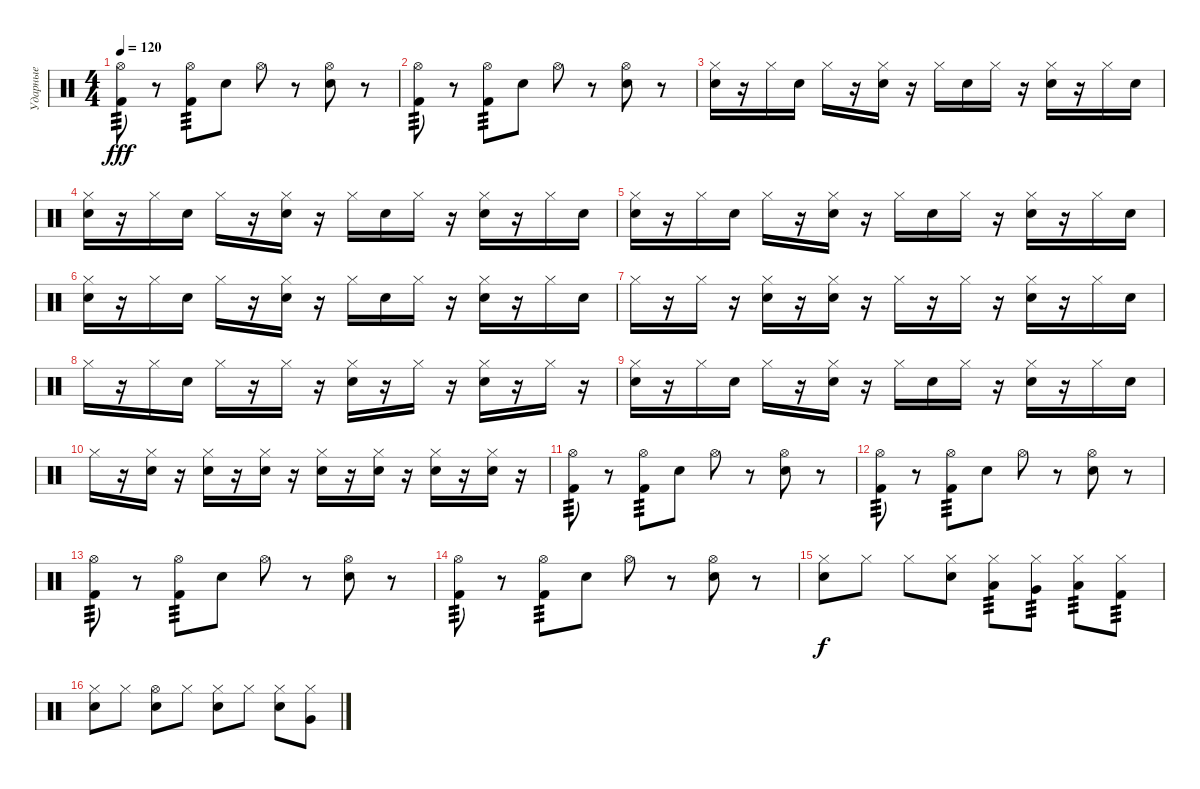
\track ("Ударные" "Ударные") {instrument percussion}
\staff {score}
\articulation defaults
\ts (4 4)
\tempo 120
\clef neutral
\ks c
("Hi-Hat (open)" "Kick (hit) 2").8{tp 3 dy fff} r.8 ("Hi-Hat (open)" "Kick (hit) 2").8{tp 3} "Snare (hit) 2".8 "Hi-Hat (open)".8 r.8 ("Hi-Hat (open)" "Snare (hit) 2").8 r.8 |
("Hi-Hat (open)" "Kick (hit) 2").8{tp 3} r.8 ("Hi-Hat (open)" "Kick (hit) 2").8{tp 3} "Snare (hit) 2".8 "Hi-Hat (open)".8 r.8 ("Hi-Hat (open)" "Snare (hit) 2").8 r.8 |
("Hi-Hat (closed)" "Snare (hit) 2").16 r.16 "Hi-Hat (closed)".16 "Snare (hit) 2".16 "Hi-Hat (closed)".16 r.16 ("Hi-Hat (closed)" "Snare (hit) 2").16 r.16 "Hi-Hat (closed)".16 "Snare (hit) 2".16 "Hi-Hat (closed)".16 r.16 ("Hi-Hat (closed)" "Snare (hit) 2").16 r.16 "Hi-Hat (closed)".16 "Snare (hit) 2".16 |
("Hi-Hat (closed)" "Snare (hit) 2").16 r.16 "Hi-Hat (closed)".16 "Snare (hit) 2".16 "Hi-Hat (closed)".16 r.16 ("Hi-Hat (closed)" "Snare (hit) 2").16 r.16 "Hi-Hat (closed)".16 "Snare (hit) 2".16 "Hi-Hat (closed)".16 r.16 ("Hi-Hat (closed)" "Snare (hit) 2").16 r.16 "Hi-Hat (closed)".16 "Snare (hit) 2".16 |
("Hi-Hat (closed)" "Snare (hit) 2").16 r.16 "Hi-Hat (closed)".16 "Snare (hit) 2".16 "Hi-Hat (closed)".16 r.16 ("Hi-Hat (closed)" "Snare (hit) 2").16 r.16 "Hi-Hat (closed)".16 "Snare (hit) 2".16 "Hi-Hat (closed)".16 r.16 ("Hi-Hat (closed)" "Snare (hit) 2").16 r.16 "Hi-Hat (closed)".16 "Snare (hit) 2".16 |
("Hi-Hat (closed)" "Snare (hit) 2").16 r.16 "Hi-Hat (closed)".16 "Snare (hit) 2".16 "Hi-Hat (closed)".16 r.16 ("Hi-Hat (closed)" "Snare (hit) 2").16 r.16 "Hi-Hat (closed)".16 "Snare (hit) 2".16 "Hi-Hat (closed)".16 r.16 ("Hi-Hat (closed)" "Snare (hit) 2").16 r.16 "Hi-Hat (closed)".16 "Snare (hit) 2".16 |
"Hi-Hat (closed)".16 r.16 "Hi-Hat (closed)".16 r.16 ("Hi-Hat (closed)" "Snare (hit) 2").16 r.16 ("Hi-Hat (closed)" "Snare (hit) 2").16 r.16 "Hi-Hat (closed)".16 r.16 "Hi-Hat (closed)".16 r.16 ("Hi-Hat (closed)" "Snare (hit) 2").16 r.16 "Hi-Hat (closed)".16 "Snare (hit) 2".16 |
"Hi-Hat (closed)".16 r.16 "Hi-Hat (closed)".16 "Snare (hit) 2".16 "Hi-Hat (closed)".16 r.16 "Hi-Hat (closed)".16 r.16 ("Hi-Hat (closed)" "Snare (hit) 2").16 r.16 "Hi-Hat (closed)".16 r.16 ("Hi-Hat (closed)" "Snare (hit) 2").16 r.16 "Hi-Hat (closed)".16 r.16 |
("Hi-Hat (closed)" "Snare (hit) 2").16 r.16 "Hi-Hat (closed)".16 "Snare (hit) 2".16 "Hi-Hat (closed)".16 r.16 ("Hi-Hat (closed)" "Snare (hit) 2").16 r.16 "Hi-Hat (closed)".16 "Snare (hit) 2".16 "Hi-Hat (closed)".16 r.16 ("Hi-Hat (closed)" "Snare (hit) 2").16 r.16 "Hi-Hat (closed)".16 "Snare (hit) 2".16 |
"Hi-Hat (closed)".16 r.16 ("Hi-Hat (closed)" "Snare (hit) 2").16 r.16 ("Hi-Hat (closed)" "Snare (hit) 2").16 r.16 ("Hi-Hat (closed)" "Snare (hit) 2").16 r.16 ("Hi-Hat (closed)" "Snare (hit) 2").16 r.16 ("Hi-Hat (closed)" "Snare (hit) 2").16 r.16 ("Hi-Hat (closed)" "Snare (hit) 2").16 r.16 ("Hi-Hat (closed)" "Snare (hit) 2").16 r.16 |
("Hi-Hat (open)" "Kick (hit) 2").8{tp 3} r.8 ("Hi-Hat (open)" "Kick (hit) 2").8{tp 3} "Snare (hit) 2".8 "Hi-Hat (open)".8 r.8 ("Hi-Hat (open)" "Snare (hit) 2").8 r.8 |
("Hi-Hat (open)" "Kick (hit) 2").8{tp 3} r.8 ("Hi-Hat (open)" "Kick (hit) 2").8{tp 3} "Snare (hit) 2".8 "Hi-Hat (open)".8 r.8 ("Hi-Hat (open)" "Snare (hit) 2").8 r.8 |
("Hi-Hat (open)" "Kick (hit) 2").8{tp 3} r.8 ("Hi-Hat (open)" "Kick (hit) 2").8{tp 3} "Snare (hit) 2".8 "Hi-Hat (open)".8 r.8 ("Hi-Hat (open)" "Snare (hit) 2").8 r.8 |
("Hi-Hat (open)" "Kick (hit) 2").8{tp 3} r.8 ("Hi-Hat (open)" "Kick (hit) 2").8{tp 3} "Snare (hit) 2".8 "Hi-Hat (open)".8 r.8 ("Hi-Hat (open)" "Snare (hit) 2").8 r.8 |
("Hi-Hat (closed)" "Snare (hit) 2").8{dy f} "Hi-Hat (closed)".8 "Hi-Hat (closed)".8 ("Hi-Hat (closed)" "Snare (hit) 2").8 ("Hi-Hat (closed)" "Low Tom (hit)").8{tp 3} ("Hi-Hat (closed)" "Very Low Tom (hit)").8{tp 3} ("Hi-Hat (closed)" "Low Floor Tom (hit)").8{tp 3} ("Hi-Hat (closed)" "Kick (hit) 2").8{tp 3} |
("Hi-Hat (closed)" "Snare (hit) 2").8 "Hi-Hat (closed)".8 ("Hi-Hat (open)" "Snare (hit) 2").8 "Hi-Hat (closed)".8 ("Hi-Hat (closed)" "Snare (hit) 2").8 "Hi-Hat (closed)".8 ("Hi-Hat (closed)" "Snare (hit) 2").8 ("Hi-Hat (closed)" "Very Low Tom (hit)").8
